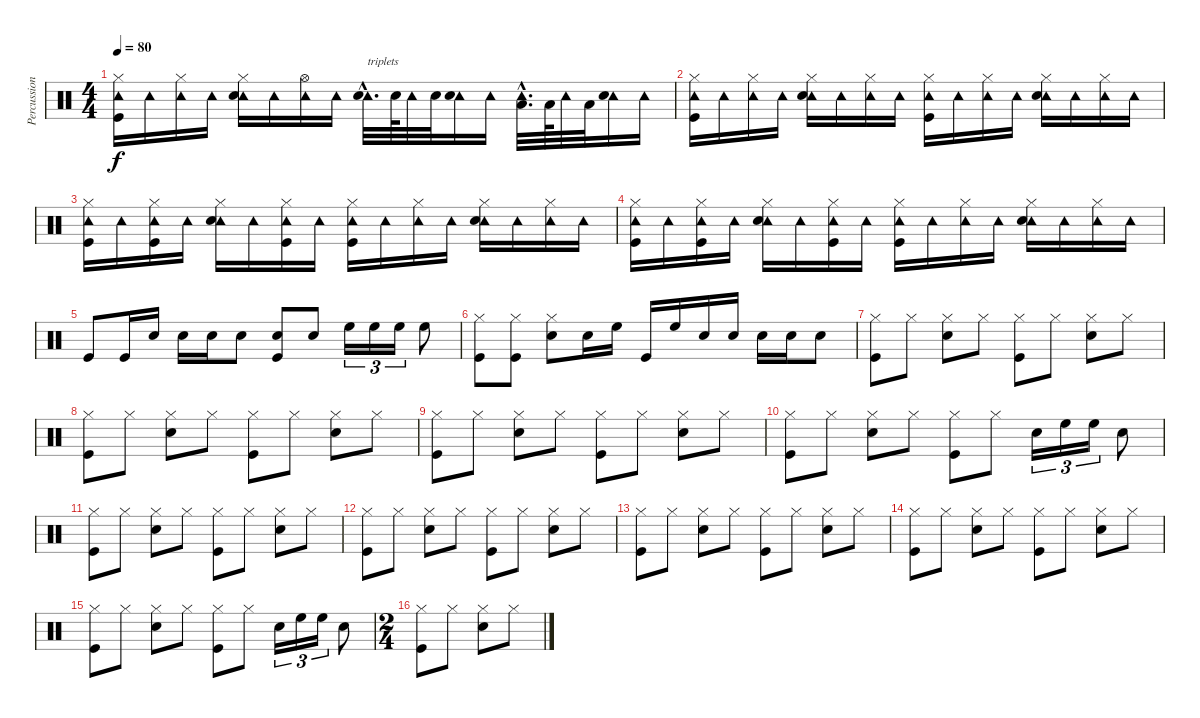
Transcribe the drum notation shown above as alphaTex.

\track ("Percussion" "Percussion") {instrument percussion}
\staff {score}
\articulation defaults
\ts (4 4)
\tempo 80
\clef neutral
\ks c
("Hi-Hat (closed)" "Tambourine (hit)" "Kick (hit)").16{dy f} "Tambourine (hit)".16 ("Hi-Hat (closed)" "Tambourine (hit)").16 "Tambourine (hit)".16 ("Hi-Hat (closed)" "Tambourine (hit)" "Snare (hit) 2").16 "Tambourine (hit)".16 ("Hi-Hat (open)" "Tambourine (hit)").16 "Tambourine (hit)".16 ("Tambourine (hit)"{hac} "Snare (hit) 2"{hac}).32{d txt "triplets"} "Snare (hit) 2".64 "Tambourine (hit)".32 "Snare (hit) 2".32 ("Tambourine (hit)" "Snare (hit) 2").16 "Tambourine (hit)".16 ("Tambourine (hit)"{hac} "Low Tom (hit)"{hac}).32{d} "Low Tom (hit)".64 "Tambourine (hit)".32 "Low Tom (hit)".32 ("Tambourine (hit)" "Snare (hit) 2").16 "Tambourine (hit)".16 |
("Hi-Hat (closed)" "Tambourine (hit)" "Kick (hit)").16 "Tambourine (hit)".16 ("Hi-Hat (closed)" "Tambourine (hit)").16 "Tambourine (hit)".16 ("Hi-Hat (closed)" "Tambourine (hit)" "Snare (hit) 2").16 "Tambourine (hit)".16 ("Hi-Hat (closed)" "Tambourine (hit)").16 "Tambourine (hit)".16 ("Hi-Hat (closed)" "Tambourine (hit)" "Kick (hit)").16 "Tambourine (hit)".16 ("Hi-Hat (closed)" "Tambourine (hit)").16 "Tambourine (hit)".16 ("Hi-Hat (closed)" "Tambourine (hit)" "Snare (hit) 2").16 "Tambourine (hit)".16 ("Hi-Hat (closed)" "Tambourine (hit)").16 "Tambourine (hit)".16 |
("Hi-Hat (closed)" "Tambourine (hit)" "Kick (hit)").16 "Tambourine (hit)".16 ("Hi-Hat (closed)" "Tambourine (hit)" "Kick (hit)").16 "Tambourine (hit)".16 ("Hi-Hat (closed)" "Tambourine (hit)" "Snare (hit) 2").16 "Tambourine (hit)".16 ("Hi-Hat (closed)" "Tambourine (hit)" "Kick (hit)").16 "Tambourine (hit)".16 ("Hi-Hat (closed)" "Tambourine (hit)" "Kick (hit)").16 "Tambourine (hit)".16 ("Hi-Hat (closed)" "Tambourine (hit)").16 "Tambourine (hit)".16 ("Hi-Hat (closed)" "Tambourine (hit)" "Snare (hit) 2").16 "Tambourine (hit)".16 ("Hi-Hat (closed)" "Tambourine (hit)").16 "Tambourine (hit)".16 |
("Hi-Hat (closed)" "Tambourine (hit)" "Kick (hit)").16 "Tambourine (hit)".16 ("Hi-Hat (closed)" "Tambourine (hit)" "Kick (hit)").16 "Tambourine (hit)".16 ("Hi-Hat (closed)" "Tambourine (hit)" "Snare (hit) 2").16 "Tambourine (hit)".16 ("Hi-Hat (closed)" "Tambourine (hit)" "Kick (hit)").16 "Tambourine (hit)".16 ("Hi-Hat (closed)" "Tambourine (hit)" "Kick (hit)").16 "Tambourine (hit)".16 ("Hi-Hat (closed)" "Tambourine (hit)").16 "Tambourine (hit)".16 ("Hi-Hat (closed)" "Tambourine (hit)" "Snare (hit) 2").16 "Tambourine (hit)".16 ("Hi-Hat (closed)" "Tambourine (hit)").16 "Tambourine (hit)".16 |
"Kick (hit)".8 "Kick (hit)".16 "Snare (hit) 2".16 "Snare (hit) 2".16 "Snare (hit) 2".16 "Snare (hit) 2".8 ("Snare (hit) 2" "Kick (hit)").8 "Snare (hit) 2".8 "High Floor Tom (hit)".16{tu (3 2)} "High Floor Tom (hit)".16{tu (3 2)} "High Floor Tom (hit)".16{tu (3 2)} "High Floor Tom (hit)".8 |
("Hi-Hat (closed)" "Kick (hit)").8 ("Hi-Hat (closed)" "Kick (hit)").8 ("Hi-Hat (closed)" "Snare (hit) 2").8 "Snare (hit) 2".16 "High Floor Tom (hit)".16 "Kick (hit)".16 "High Floor Tom (hit)".16 "Snare (hit) 2".16 "Snare (hit) 2".16 "Snare (hit) 2".16 "Snare (hit) 2".16 "Snare (hit) 2".8 |
("Hi-Hat (closed)" "Kick (hit)").8 "Hi-Hat (closed)".8 ("Hi-Hat (closed)" "Snare (hit) 2").8 "Hi-Hat (closed)".8 ("Hi-Hat (closed)" "Kick (hit)").8 "Hi-Hat (closed)".8 ("Hi-Hat (closed)" "Snare (hit) 2").8 "Hi-Hat (closed)".8 |
("Hi-Hat (closed)" "Kick (hit)").8 "Hi-Hat (closed)".8 ("Hi-Hat (closed)" "Snare (hit) 2").8 "Hi-Hat (closed)".8 ("Hi-Hat (closed)" "Kick (hit)").8 "Hi-Hat (closed)".8 ("Hi-Hat (closed)" "Snare (hit) 2").8 "Hi-Hat (closed)".8 |
("Hi-Hat (closed)" "Kick (hit)").8 "Hi-Hat (closed)".8 ("Hi-Hat (closed)" "Snare (hit) 2").8 "Hi-Hat (closed)".8 ("Hi-Hat (closed)" "Kick (hit)").8 "Hi-Hat (closed)".8 ("Hi-Hat (closed)" "Snare (hit) 2").8 "Hi-Hat (closed)".8 |
("Hi-Hat (closed)" "Kick (hit)").8 "Hi-Hat (closed)".8 ("Hi-Hat (closed)" "Snare (hit) 2").8 "Hi-Hat (closed)".8 ("Hi-Hat (closed)" "Kick (hit)").8 "Hi-Hat (closed)".8 "Snare (hit) 2".16{tu (3 2)} "High Floor Tom (hit)".16{tu (3 2)} "High Floor Tom (hit)".16{tu (3 2)} "Snare (hit) 2".8 |
("Hi-Hat (closed)" "Kick (hit)").8 "Hi-Hat (closed)".8 ("Hi-Hat (closed)" "Snare (hit) 2").8 "Hi-Hat (closed)".8 ("Hi-Hat (closed)" "Kick (hit)").8 "Hi-Hat (closed)".8 ("Hi-Hat (closed)" "Snare (hit) 2").8 "Hi-Hat (closed)".8 |
("Hi-Hat (closed)" "Kick (hit)").8 "Hi-Hat (closed)".8 ("Hi-Hat (closed)" "Snare (hit) 2").8 "Hi-Hat (closed)".8 ("Hi-Hat (closed)" "Kick (hit)").8 "Hi-Hat (closed)".8 ("Hi-Hat (closed)" "Snare (hit) 2").8 "Hi-Hat (closed)".8 |
("Hi-Hat (closed)" "Kick (hit)").8 "Hi-Hat (closed)".8 ("Hi-Hat (closed)" "Snare (hit) 2").8 "Hi-Hat (closed)".8 ("Hi-Hat (closed)" "Kick (hit)").8 "Hi-Hat (closed)".8 ("Hi-Hat (closed)" "Snare (hit) 2").8 "Hi-Hat (closed)".8 |
("Hi-Hat (closed)" "Kick (hit)").8 "Hi-Hat (closed)".8 ("Hi-Hat (closed)" "Snare (hit) 2").8 "Hi-Hat (closed)".8 ("Hi-Hat (closed)" "Kick (hit)").8 "Hi-Hat (closed)".8 ("Hi-Hat (closed)" "Snare (hit) 2").8 "Hi-Hat (closed)".8 |
("Hi-Hat (closed)" "Kick (hit)").8 "Hi-Hat (closed)".8 ("Hi-Hat (closed)" "Snare (hit) 2").8 "Hi-Hat (closed)".8 ("Hi-Hat (closed)" "Kick (hit)").8 "Hi-Hat (closed)".8 "Snare (hit) 2".16{tu (3 2)} "High Floor Tom (hit)".16{tu (3 2)} "High Floor Tom (hit)".16{tu (3 2)} "Snare (hit) 2".8 |
\ts (2 4)
("Hi-Hat (closed)" "Kick (hit)").8 "Hi-Hat (closed)".8 ("Hi-Hat (closed)" "Snare (hit) 2").8 "Hi-Hat (closed)".8
